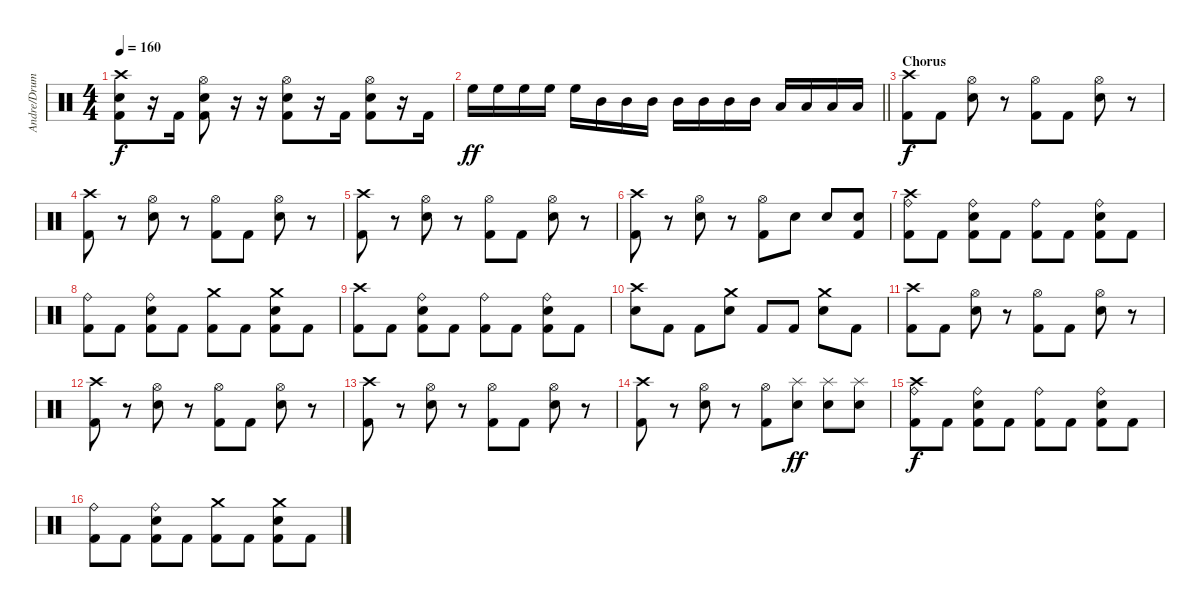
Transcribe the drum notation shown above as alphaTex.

\track ("Andre/Drums" "Andre/Drum") {instrument percussion}
\staff {score}
\articulation defaults
\ts (4 4)
\tempo 160
\clef neutral
\ks c
("Crash high (hit)" "Snare (hit) 2" "Kick (hit) 2").8{dy f} r.16 "Kick (hit) 2".16 ("Hi-Hat (open)" "Snare (hit) 2" "Kick (hit) 2").8 r.16 r.16 ("Hi-Hat (open)" "Snare (hit) 2" "Kick (hit) 2").8 r.16 "Kick (hit) 2".16 ("Hi-Hat (open)" "Snare (hit) 2" "Kick (hit) 2").8 r.16 "Kick (hit) 2".16 |
\barLineRight lightlight "High Floor Tom (hit)".16{dy ff} "High Floor Tom (hit)".16 "High Floor Tom (hit)".16 "High Floor Tom (hit)".16 "High Floor Tom (hit)".16 "Mid Tom (hit)".16 "Mid Tom (hit)".16 "Mid Tom (hit)".16 "Mid Tom (hit)".16 "Mid Tom (hit)".16 "Mid Tom (hit)".16 "Mid Tom (hit)".16 "Low Tom (hit)".16 "Low Tom (hit)".16 "Low Tom (hit)".16 "Low Tom (hit)".16
|
\section ("" "Chorus")
("Crash high (hit)" "Kick (hit) 2").8{dy f} "Kick (hit) 2".8 ("Hi-Hat (open)" "Snare (hit) 2").8 r.8 ("Hi-Hat (open)" "Kick (hit) 2").8 "Kick (hit) 2".8 ("Hi-Hat (open)" "Snare (hit) 2").8 r.8 |
("Crash high (hit)" "Kick (hit) 2").8 r.8 ("Hi-Hat (open)" "Snare (hit) 2").8 r.8 ("Hi-Hat (open)" "Kick (hit) 2").8 "Kick (hit) 2".8 ("Hi-Hat (open)" "Snare (hit) 2").8 r.8 |
("Crash high (hit)" "Kick (hit) 2").8 r.8 ("Hi-Hat (open)" "Snare (hit) 2").8 r.8 ("Hi-Hat (open)" "Kick (hit) 2").8 "Kick (hit) 2".8 ("Hi-Hat (open)" "Snare (hit) 2").8 r.8 |
("Crash high (hit)" "Kick (hit) 2").8 r.8 ("Hi-Hat (open)" "Snare (hit) 2").8 r.8 ("Hi-Hat (open)" "Kick (hit) 2").8 "Snare (hit) 2".8 "Snare (hit) 2".8 ("Snare (hit) 2" "Kick (hit) 2").8 |
("Crash high (hit)" "Ride (bell)" "Kick (hit) 2").8 "Kick (hit) 2".8 ("Ride (bell)" "Snare (hit) 2" "Kick (hit) 2").8 "Kick (hit) 2".8 ("Ride (bell)" "Kick (hit) 2").8 "Kick (hit) 2".8 ("Ride (bell)" "Snare (hit) 2" "Kick (hit) 2").8 "Kick (hit) 2".8 |
("Ride (bell)" "Kick (hit) 2").8 "Kick (hit) 2".8 ("Ride (bell)" "Snare (hit) 2" "Kick (hit) 2").8 "Kick (hit) 2".8 ("Crash medium (hit)" "Kick (hit) 2").8 "Kick (hit) 2".8 ("Crash medium (hit)" "Snare (hit) 2" "Kick (hit) 2").8 "Kick (hit) 2".8 |
("Crash high (hit)" "Kick (hit) 2").8 "Kick (hit) 2".8 ("Ride (bell)" "Snare (hit) 2" "Kick (hit) 2").8 "Kick (hit) 2".8 ("Ride (bell)" "Kick (hit) 2").8 "Kick (hit) 2".8 ("Ride (bell)" "Snare (hit) 2" "Kick (hit) 2").8 "Kick (hit) 2".8 |
("Crash high (hit)" "Snare (hit) 2").8 "Kick (hit) 2".8 "Kick (hit) 2".8 ("Crash medium (hit)" "Snare (hit) 2").8 "Kick (hit) 2".8 "Kick (hit) 2".8 ("Crash medium (hit)" "Snare (hit) 2").8 "Kick (hit) 2".8 |
("Crash high (hit)" "Kick (hit) 2").8 "Kick (hit) 2".8 ("Hi-Hat (open)" "Snare (hit) 2").8 r.8 ("Hi-Hat (open)" "Kick (hit) 2").8 "Kick (hit) 2".8 ("Hi-Hat (open)" "Snare (hit) 2").8 r.8 |
("Crash high (hit)" "Kick (hit) 2").8 r.8 ("Hi-Hat (open)" "Snare (hit) 2").8 r.8 ("Hi-Hat (open)" "Kick (hit) 2").8 "Kick (hit) 2".8 ("Hi-Hat (open)" "Snare (hit) 2").8 r.8 |
("Crash high (hit)" "Kick (hit) 2").8 r.8 ("Hi-Hat (open)" "Snare (hit) 2").8 r.8 ("Hi-Hat (open)" "Kick (hit) 2").8 "Kick (hit) 2".8 ("Hi-Hat (open)" "Snare (hit) 2").8 r.8 |
("Crash high (hit)" "Kick (hit) 2").8 r.8 ("Hi-Hat (open)" "Snare (hit) 2").8 r.8 ("Hi-Hat (open)" "Kick (hit) 2").8 ("Splash (hit)" "Snare (hit) 2").8{dy ff} ("Splash (hit)" "Snare (hit) 2").8 ("Splash (hit)" "Snare (hit) 2").8 |
("Crash high (hit)" "Ride (bell)" "Kick (hit) 2").8{dy f} "Kick (hit) 2".8 ("Ride (bell)" "Snare (hit) 2" "Kick (hit) 2").8 "Kick (hit) 2".8 ("Ride (bell)" "Kick (hit) 2").8 "Kick (hit) 2".8 ("Ride (bell)" "Snare (hit) 2" "Kick (hit) 2").8 "Kick (hit) 2".8 |
("Ride (bell)" "Kick (hit) 2").8 "Kick (hit) 2".8 ("Ride (bell)" "Snare (hit) 2" "Kick (hit) 2").8 "Kick (hit) 2".8 ("Crash medium (hit)" "Kick (hit) 2").8 "Kick (hit) 2".8 ("Crash medium (hit)" "Snare (hit) 2" "Kick (hit) 2").8 "Kick (hit) 2".8
